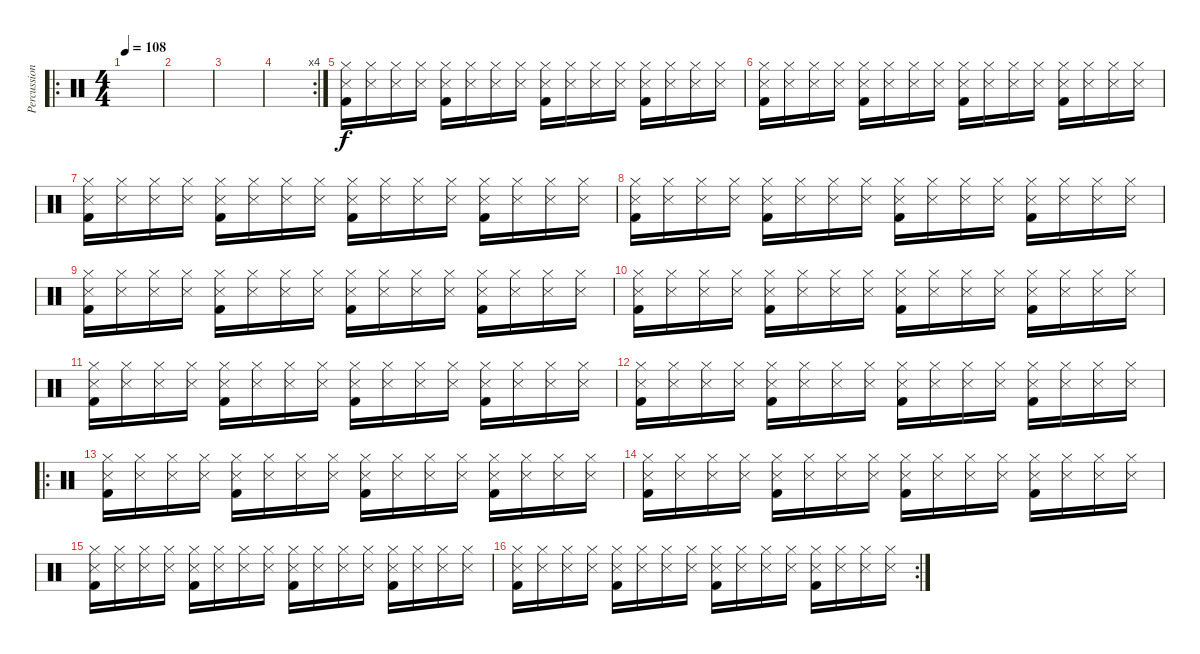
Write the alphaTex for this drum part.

\track ("Percussions" "Percussion") {instrument percussion}
\staff {score}
\articulation defaults
\ro
\ts (4 4)
\tempo 108
\clef neutral
\ks c
|
|
|
\rc 4
|
("Kick (hit) 2" "Hi-Hat (closed)" "Snare (side stick) 3").16 ("Hi-Hat (closed)" "Snare (side stick) 3").16 ("Hi-Hat (closed)" "Snare (side stick) 3").16 ("Hi-Hat (closed)" "Snare (side stick) 3").16 ("Kick (hit) 2" "Hi-Hat (closed)" "Snare (side stick) 3").16 ("Hi-Hat (closed)" "Snare (side stick) 3").16 ("Hi-Hat (closed)" "Snare (side stick) 3").16 ("Hi-Hat (closed)" "Snare (side stick) 3").16 ("Kick (hit) 2" "Hi-Hat (closed)" "Snare (side stick) 3").16 ("Hi-Hat (closed)" "Snare (side stick) 3").16 ("Hi-Hat (closed)" "Snare (side stick) 3").16 ("Hi-Hat (closed)" "Snare (side stick) 3").16 ("Kick (hit) 2" "Hi-Hat (closed)" "Snare (side stick) 3").16 ("Hi-Hat (closed)" "Snare (side stick) 3").16 ("Hi-Hat (closed)" "Snare (side stick) 3").16 ("Hi-Hat (closed)" "Snare (side stick) 3").16 |
("Kick (hit) 2" "Hi-Hat (closed)" "Snare (side stick) 3").16 ("Hi-Hat (closed)" "Snare (side stick) 3").16 ("Hi-Hat (closed)" "Snare (side stick) 3").16 ("Hi-Hat (closed)" "Snare (side stick) 3").16 ("Kick (hit) 2" "Hi-Hat (closed)" "Snare (side stick) 3").16 ("Hi-Hat (closed)" "Snare (side stick) 3").16 ("Hi-Hat (closed)" "Snare (side stick) 3").16 ("Hi-Hat (closed)" "Snare (side stick) 3").16 ("Kick (hit) 2" "Hi-Hat (closed)" "Snare (side stick) 3").16 ("Hi-Hat (closed)" "Snare (side stick) 3").16 ("Hi-Hat (closed)" "Snare (side stick) 3").16 ("Hi-Hat (closed)" "Snare (side stick) 3").16 ("Kick (hit) 2" "Hi-Hat (closed)" "Snare (side stick) 3").16 ("Hi-Hat (closed)" "Snare (side stick) 3").16 ("Hi-Hat (closed)" "Snare (side stick) 3").16 ("Hi-Hat (closed)" "Snare (side stick) 3").16 |
("Kick (hit) 2" "Hi-Hat (closed)" "Snare (side stick) 3").16 ("Hi-Hat (closed)" "Snare (side stick) 3").16 ("Hi-Hat (closed)" "Snare (side stick) 3").16 ("Hi-Hat (closed)" "Snare (side stick) 3").16 ("Kick (hit) 2" "Hi-Hat (closed)" "Snare (side stick) 3").16 ("Hi-Hat (closed)" "Snare (side stick) 3").16 ("Hi-Hat (closed)" "Snare (side stick) 3").16 ("Hi-Hat (closed)" "Snare (side stick) 3").16 ("Kick (hit) 2" "Hi-Hat (closed)" "Snare (side stick) 3").16 ("Hi-Hat (closed)" "Snare (side stick) 3").16 ("Hi-Hat (closed)" "Snare (side stick) 3").16 ("Hi-Hat (closed)" "Snare (side stick) 3").16 ("Kick (hit) 2" "Hi-Hat (closed)" "Snare (side stick) 3").16 ("Hi-Hat (closed)" "Snare (side stick) 3").16 ("Hi-Hat (closed)" "Snare (side stick) 3").16 ("Hi-Hat (closed)" "Snare (side stick) 3").16 |
("Kick (hit) 2" "Hi-Hat (closed)" "Snare (side stick) 3").16 ("Hi-Hat (closed)" "Snare (side stick) 3").16 ("Hi-Hat (closed)" "Snare (side stick) 3").16 ("Hi-Hat (closed)" "Snare (side stick) 3").16 ("Kick (hit) 2" "Hi-Hat (closed)" "Snare (side stick) 3").16 ("Hi-Hat (closed)" "Snare (side stick) 3").16 ("Hi-Hat (closed)" "Snare (side stick) 3").16 ("Hi-Hat (closed)" "Snare (side stick) 3").16 ("Kick (hit) 2" "Hi-Hat (closed)" "Snare (side stick) 3").16 ("Hi-Hat (closed)" "Snare (side stick) 3").16 ("Hi-Hat (closed)" "Snare (side stick) 3").16 ("Hi-Hat (closed)" "Snare (side stick) 3").16 ("Kick (hit) 2" "Hi-Hat (closed)" "Snare (side stick) 3").16 ("Hi-Hat (closed)" "Snare (side stick) 3").16 ("Hi-Hat (closed)" "Snare (side stick) 3").16 ("Hi-Hat (closed)" "Snare (side stick) 3").16 |
("Kick (hit) 2" "Hi-Hat (closed)" "Snare (side stick) 3").16 ("Hi-Hat (closed)" "Snare (side stick) 3").16 ("Hi-Hat (closed)" "Snare (side stick) 3").16 ("Hi-Hat (closed)" "Snare (side stick) 3").16 ("Kick (hit) 2" "Hi-Hat (closed)" "Snare (side stick) 3").16 ("Hi-Hat (closed)" "Snare (side stick) 3").16 ("Hi-Hat (closed)" "Snare (side stick) 3").16 ("Hi-Hat (closed)" "Snare (side stick) 3").16 ("Kick (hit) 2" "Hi-Hat (closed)" "Snare (side stick) 3").16 ("Hi-Hat (closed)" "Snare (side stick) 3").16 ("Hi-Hat (closed)" "Snare (side stick) 3").16 ("Hi-Hat (closed)" "Snare (side stick) 3").16 ("Kick (hit) 2" "Hi-Hat (closed)" "Snare (side stick) 3").16 ("Hi-Hat (closed)" "Snare (side stick) 3").16 ("Hi-Hat (closed)" "Snare (side stick) 3").16 ("Hi-Hat (closed)" "Snare (side stick) 3").16 |
("Kick (hit) 2" "Hi-Hat (closed)" "Snare (side stick) 3").16 ("Hi-Hat (closed)" "Snare (side stick) 3").16 ("Hi-Hat (closed)" "Snare (side stick) 3").16 ("Hi-Hat (closed)" "Snare (side stick) 3").16 ("Kick (hit) 2" "Hi-Hat (closed)" "Snare (side stick) 3").16 ("Hi-Hat (closed)" "Snare (side stick) 3").16 ("Hi-Hat (closed)" "Snare (side stick) 3").16 ("Hi-Hat (closed)" "Snare (side stick) 3").16 ("Kick (hit) 2" "Hi-Hat (closed)" "Snare (side stick) 3").16 ("Hi-Hat (closed)" "Snare (side stick) 3").16 ("Hi-Hat (closed)" "Snare (side stick) 3").16 ("Hi-Hat (closed)" "Snare (side stick) 3").16 ("Kick (hit) 2" "Hi-Hat (closed)" "Snare (side stick) 3").16 ("Hi-Hat (closed)" "Snare (side stick) 3").16 ("Hi-Hat (closed)" "Snare (side stick) 3").16 ("Hi-Hat (closed)" "Snare (side stick) 3").16 |
("Kick (hit) 2" "Hi-Hat (closed)" "Snare (side stick) 3").16 ("Hi-Hat (closed)" "Snare (side stick) 3").16 ("Hi-Hat (closed)" "Snare (side stick) 3").16 ("Hi-Hat (closed)" "Snare (side stick) 3").16 ("Kick (hit) 2" "Hi-Hat (closed)" "Snare (side stick) 3").16 ("Hi-Hat (closed)" "Snare (side stick) 3").16 ("Hi-Hat (closed)" "Snare (side stick) 3").16 ("Hi-Hat (closed)" "Snare (side stick) 3").16 ("Kick (hit) 2" "Hi-Hat (closed)" "Snare (side stick) 3").16 ("Hi-Hat (closed)" "Snare (side stick) 3").16 ("Hi-Hat (closed)" "Snare (side stick) 3").16 ("Hi-Hat (closed)" "Snare (side stick) 3").16 ("Kick (hit) 2" "Hi-Hat (closed)" "Snare (side stick) 3").16 ("Hi-Hat (closed)" "Snare (side stick) 3").16 ("Hi-Hat (closed)" "Snare (side stick) 3").16 ("Hi-Hat (closed)" "Snare (side stick) 3").16 |
("Kick (hit) 2" "Hi-Hat (closed)" "Snare (side stick) 3").16 ("Hi-Hat (closed)" "Snare (side stick) 3").16 ("Hi-Hat (closed)" "Snare (side stick) 3").16 ("Hi-Hat (closed)" "Snare (side stick) 3").16 ("Kick (hit) 2" "Hi-Hat (closed)" "Snare (side stick) 3").16 ("Hi-Hat (closed)" "Snare (side stick) 3").16 ("Hi-Hat (closed)" "Snare (side stick) 3").16 ("Hi-Hat (closed)" "Snare (side stick) 3").16 ("Kick (hit) 2" "Hi-Hat (closed)" "Snare (side stick) 3").16 ("Hi-Hat (closed)" "Snare (side stick) 3").16 ("Hi-Hat (closed)" "Snare (side stick) 3").16 ("Hi-Hat (closed)" "Snare (side stick) 3").16 ("Kick (hit) 2" "Hi-Hat (closed)" "Snare (side stick) 3").16 ("Hi-Hat (closed)" "Snare (side stick) 3").16 ("Hi-Hat (closed)" "Snare (side stick) 3").16 ("Hi-Hat (closed)" "Snare (side stick) 3").16 |
\ro
("Kick (hit) 2" "Hi-Hat (closed)" "Snare (side stick) 3").16 ("Hi-Hat (closed)" "Snare (side stick) 3").16 ("Hi-Hat (closed)" "Snare (side stick) 3").16 ("Hi-Hat (closed)" "Snare (side stick) 3").16 ("Kick (hit) 2" "Hi-Hat (closed)" "Snare (side stick) 3").16 ("Hi-Hat (closed)" "Snare (side stick) 3").16 ("Hi-Hat (closed)" "Snare (side stick) 3").16 ("Hi-Hat (closed)" "Snare (side stick) 3").16 ("Kick (hit) 2" "Hi-Hat (closed)" "Snare (side stick) 3").16 ("Hi-Hat (closed)" "Snare (side stick) 3").16 ("Hi-Hat (closed)" "Snare (side stick) 3").16 ("Hi-Hat (closed)" "Snare (side stick) 3").16 ("Kick (hit) 2" "Hi-Hat (closed)" "Snare (side stick) 3").16 ("Hi-Hat (closed)" "Snare (side stick) 3").16 ("Hi-Hat (closed)" "Snare (side stick) 3").16 ("Hi-Hat (closed)" "Snare (side stick) 3").16 |
("Kick (hit) 2" "Hi-Hat (closed)" "Snare (side stick) 3").16 ("Hi-Hat (closed)" "Snare (side stick) 3").16 ("Hi-Hat (closed)" "Snare (side stick) 3").16 ("Hi-Hat (closed)" "Snare (side stick) 3").16 ("Kick (hit) 2" "Hi-Hat (closed)" "Snare (side stick) 3").16 ("Hi-Hat (closed)" "Snare (side stick) 3").16 ("Hi-Hat (closed)" "Snare (side stick) 3").16 ("Hi-Hat (closed)" "Snare (side stick) 3").16 ("Kick (hit) 2" "Hi-Hat (closed)" "Snare (side stick) 3").16 ("Hi-Hat (closed)" "Snare (side stick) 3").16 ("Hi-Hat (closed)" "Snare (side stick) 3").16 ("Hi-Hat (closed)" "Snare (side stick) 3").16 ("Kick (hit) 2" "Hi-Hat (closed)" "Snare (side stick) 3").16 ("Hi-Hat (closed)" "Snare (side stick) 3").16 ("Hi-Hat (closed)" "Snare (side stick) 3").16 ("Hi-Hat (closed)" "Snare (side stick) 3").16 |
("Kick (hit) 2" "Hi-Hat (closed)" "Snare (side stick) 3").16 ("Hi-Hat (closed)" "Snare (side stick) 3").16 ("Hi-Hat (closed)" "Snare (side stick) 3").16 ("Hi-Hat (closed)" "Snare (side stick) 3").16 ("Kick (hit) 2" "Hi-Hat (closed)" "Snare (side stick) 3").16 ("Hi-Hat (closed)" "Snare (side stick) 3").16 ("Hi-Hat (closed)" "Snare (side stick) 3").16 ("Hi-Hat (closed)" "Snare (side stick) 3").16 ("Kick (hit) 2" "Hi-Hat (closed)" "Snare (side stick) 3").16 ("Hi-Hat (closed)" "Snare (side stick) 3").16 ("Hi-Hat (closed)" "Snare (side stick) 3").16 ("Hi-Hat (closed)" "Snare (side stick) 3").16 ("Kick (hit) 2" "Hi-Hat (closed)" "Snare (side stick) 3").16 ("Hi-Hat (closed)" "Snare (side stick) 3").16 ("Hi-Hat (closed)" "Snare (side stick) 3").16 ("Hi-Hat (closed)" "Snare (side stick) 3").16 |
\rc 2
("Kick (hit) 2" "Hi-Hat (closed)" "Snare (side stick) 3").16 ("Hi-Hat (closed)" "Snare (side stick) 3").16 ("Hi-Hat (closed)" "Snare (side stick) 3").16 ("Hi-Hat (closed)" "Snare (side stick) 3").16 ("Kick (hit) 2" "Hi-Hat (closed)" "Snare (side stick) 3").16 ("Hi-Hat (closed)" "Snare (side stick) 3").16 ("Hi-Hat (closed)" "Snare (side stick) 3").16 ("Hi-Hat (closed)" "Snare (side stick) 3").16 ("Kick (hit) 2" "Hi-Hat (closed)" "Snare (side stick) 3").16 ("Hi-Hat (closed)" "Snare (side stick) 3").16 ("Hi-Hat (closed)" "Snare (side stick) 3").16 ("Hi-Hat (closed)" "Snare (side stick) 3").16 ("Kick (hit) 2" "Hi-Hat (closed)" "Snare (side stick) 3").16 ("Hi-Hat (closed)" "Snare (side stick) 3").16 ("Hi-Hat (closed)" "Snare (side stick) 3").16 ("Hi-Hat (closed)" "Snare (side stick) 3").16
